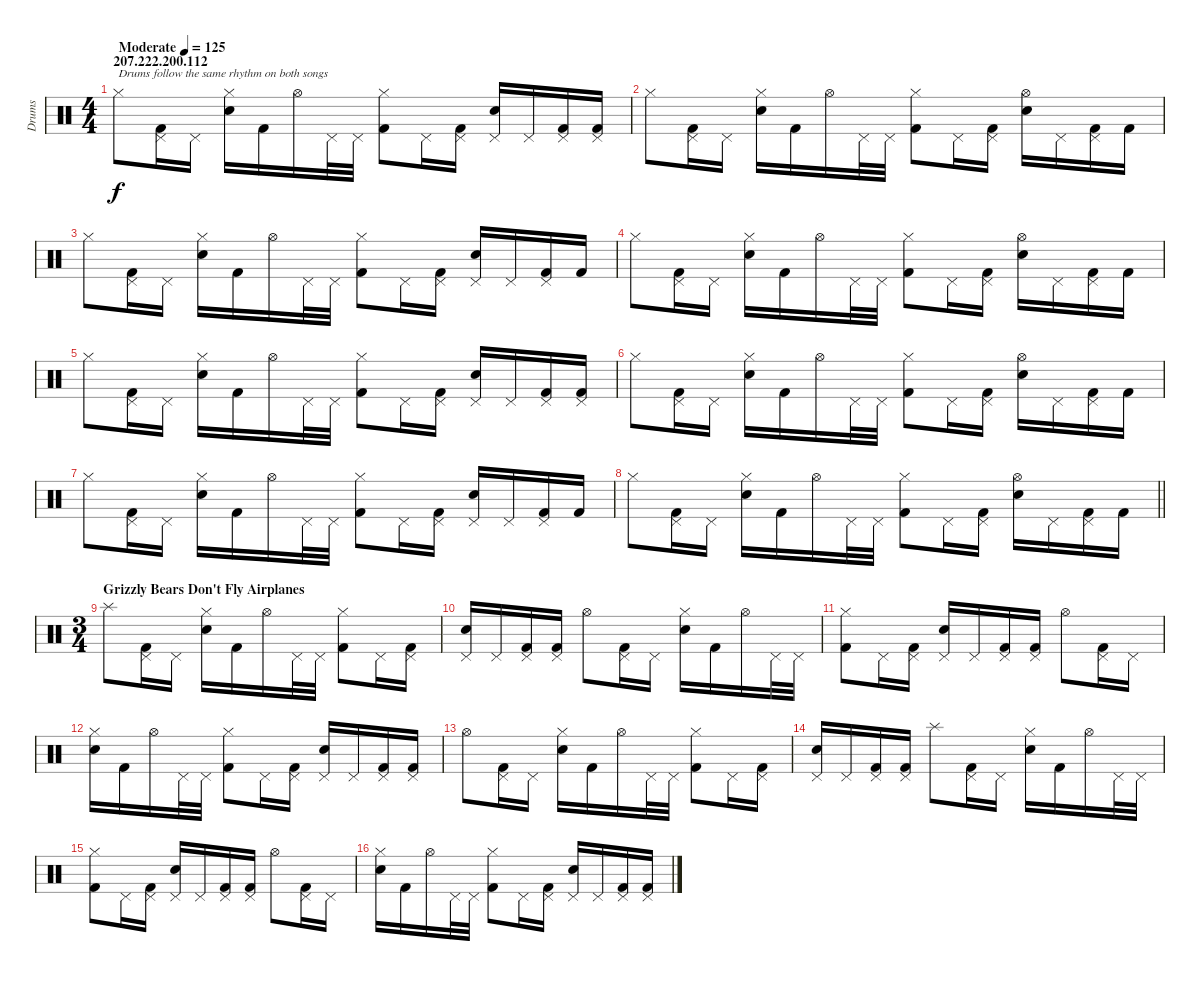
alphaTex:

\track ("Drums" "Drums") {instrument percussion}
\staff {score}
\articulation defaults
\ts (4 4)
\section ("" "207.222.200.112")
\tempo (125 "Moderate")
\clef neutral
\ks c "Hi-Hat (closed)".8{txt "Drums follow the same rhythm on both songs" dy f}
("Pedal Hi-Hat (hit)" "Kick (hit) 2").16 "Pedal Hi-Hat (hit)".16 ("Hi-Hat (closed)" "Snare (hit) 2").16 "Kick (hit) 2".16 "Hi-Hat (open)".16 "Pedal Hi-Hat (hit)".32 "Pedal Hi-Hat (hit)".32 ("Hi-Hat (closed)" "Kick (hit) 2").8 "Pedal Hi-Hat (hit)".16 ("Pedal Hi-Hat (hit)" "Kick (hit) 2").16 ("Pedal Hi-Hat (hit)" "Snare (hit) 2").16 "Pedal Hi-Hat (hit)".16 ("Pedal Hi-Hat (hit)" "Kick (hit) 2").16 ("Pedal Hi-Hat (hit)" "Kick (hit) 2").16 |
"Hi-Hat (closed)".8 ("Pedal Hi-Hat (hit)" "Kick (hit) 2").16 "Pedal Hi-Hat (hit)".16 ("Hi-Hat (closed)" "Snare (hit) 2").16 "Kick (hit) 2".16 "Hi-Hat (open)".16 "Pedal Hi-Hat (hit)".32 "Pedal Hi-Hat (hit)".32 ("Hi-Hat (closed)" "Kick (hit) 2").8 "Pedal Hi-Hat (hit)".16 ("Pedal Hi-Hat (hit)" "Kick (hit) 2").16 ("Hi-Hat (open)" "Snare (hit) 2").16 "Pedal Hi-Hat (hit)".16 ("Pedal Hi-Hat (hit)" "Kick (hit) 2").16 "Kick (hit) 2".16 |
"Hi-Hat (closed)".8 ("Pedal Hi-Hat (hit)" "Kick (hit) 2").16 "Pedal Hi-Hat (hit)".16 ("Hi-Hat (closed)" "Snare (hit) 2").16 "Kick (hit) 2".16 "Hi-Hat (open)".16 "Pedal Hi-Hat (hit)".32 "Pedal Hi-Hat (hit)".32 ("Hi-Hat (closed)" "Kick (hit) 2").8 "Pedal Hi-Hat (hit)".16 ("Pedal Hi-Hat (hit)" "Kick (hit) 2").16 ("Pedal Hi-Hat (hit)" "Snare (hit) 2").16 "Pedal Hi-Hat (hit)".16 ("Pedal Hi-Hat (hit)" "Kick (hit) 2").16 "Kick (hit) 2".16 |
"Hi-Hat (closed)".8 ("Pedal Hi-Hat (hit)" "Kick (hit) 2").16 "Pedal Hi-Hat (hit)".16 ("Hi-Hat (closed)" "Snare (hit) 2").16 "Kick (hit) 2".16 "Hi-Hat (open)".16 "Pedal Hi-Hat (hit)".32 "Pedal Hi-Hat (hit)".32 ("Hi-Hat (closed)" "Kick (hit) 2").8 "Pedal Hi-Hat (hit)".16 ("Pedal Hi-Hat (hit)" "Kick (hit) 2").16 ("Hi-Hat (open)" "Snare (hit) 2").16 "Pedal Hi-Hat (hit)".16 ("Pedal Hi-Hat (hit)" "Kick (hit) 2").16 "Kick (hit) 2".16 |
"Hi-Hat (closed)".8 ("Pedal Hi-Hat (hit)" "Kick (hit) 2").16 "Pedal Hi-Hat (hit)".16 ("Hi-Hat (closed)" "Snare (hit) 2").16 "Kick (hit) 2".16 "Hi-Hat (open)".16 "Pedal Hi-Hat (hit)".32 "Pedal Hi-Hat (hit)".32 ("Hi-Hat (closed)" "Kick (hit) 2").8 "Pedal Hi-Hat (hit)".16 ("Pedal Hi-Hat (hit)" "Kick (hit) 2").16 ("Pedal Hi-Hat (hit)" "Snare (hit) 2").16 "Pedal Hi-Hat (hit)".16 ("Pedal Hi-Hat (hit)" "Kick (hit) 2").16 ("Pedal Hi-Hat (hit)" "Kick (hit) 2").16 |
"Hi-Hat (closed)".8 ("Pedal Hi-Hat (hit)" "Kick (hit) 2").16 "Pedal Hi-Hat (hit)".16 ("Hi-Hat (closed)" "Snare (hit) 2").16 "Kick (hit) 2".16 "Hi-Hat (open)".16 "Pedal Hi-Hat (hit)".32 "Pedal Hi-Hat (hit)".32 ("Hi-Hat (closed)" "Kick (hit) 2").8 "Pedal Hi-Hat (hit)".16 ("Pedal Hi-Hat (hit)" "Kick (hit) 2").16 ("Hi-Hat (open)" "Snare (hit) 2").16 "Pedal Hi-Hat (hit)".16 ("Pedal Hi-Hat (hit)" "Kick (hit) 2").16 "Kick (hit) 2".16 |
"Hi-Hat (closed)".8 ("Pedal Hi-Hat (hit)" "Kick (hit) 2").16 "Pedal Hi-Hat (hit)".16 ("Hi-Hat (closed)" "Snare (hit) 2").16 "Kick (hit) 2".16 "Hi-Hat (open)".16 "Pedal Hi-Hat (hit)".32 "Pedal Hi-Hat (hit)".32 ("Hi-Hat (closed)" "Kick (hit) 2").8 "Pedal Hi-Hat (hit)".16 ("Pedal Hi-Hat (hit)" "Kick (hit) 2").16 ("Pedal Hi-Hat (hit)" "Snare (hit) 2").16 "Pedal Hi-Hat (hit)".16 ("Pedal Hi-Hat (hit)" "Kick (hit) 2").16 "Kick (hit) 2".16 |
\barLineRight lightlight "Hi-Hat (closed)".8
("Pedal Hi-Hat (hit)" "Kick (hit) 2").16 "Pedal Hi-Hat (hit)".16 ("Hi-Hat (closed)" "Snare (hit) 2").16 "Kick (hit) 2".16 "Hi-Hat (open)".16 "Pedal Hi-Hat (hit)".32 "Pedal Hi-Hat (hit)".32 ("Hi-Hat (closed)" "Kick (hit) 2").8 "Pedal Hi-Hat (hit)".16 ("Pedal Hi-Hat (hit)" "Kick (hit) 2").16 ("Hi-Hat (open)" "Snare (hit) 2").16 "Pedal Hi-Hat (hit)".16 ("Pedal Hi-Hat (hit)" "Kick (hit) 2").16 "Kick (hit) 2".16 |
\ts (3 4)
\section ("" "Grizzly Bears Don't Fly Airplanes")
"Splash (hit)".8 ("Pedal Hi-Hat (hit)" "Kick (hit) 2").16 "Pedal Hi-Hat (hit)".16 ("Hi-Hat (closed)" "Snare (hit) 2").16 "Kick (hit) 2".16 "Hi-Hat (open)".16 "Pedal Hi-Hat (hit)".32 "Pedal Hi-Hat (hit)".32 ("Hi-Hat (closed)" "Kick (hit) 2").8 "Pedal Hi-Hat (hit)".16 ("Pedal Hi-Hat (hit)" "Kick (hit) 2").16 |
("Pedal Hi-Hat (hit)" "Snare (hit) 2").16 "Pedal Hi-Hat (hit)".16 ("Pedal Hi-Hat (hit)" "Kick (hit) 2").16 ("Pedal Hi-Hat (hit)" "Kick (hit) 2").16 "Hi-Hat (open)".8 ("Pedal Hi-Hat (hit)" "Kick (hit) 2").16 "Pedal Hi-Hat (hit)".16 ("Hi-Hat (closed)" "Snare (hit) 2").16 "Kick (hit) 2".16 "Hi-Hat (open)".16 "Pedal Hi-Hat (hit)".32 "Pedal Hi-Hat (hit)".32 |
("Hi-Hat (closed)" "Kick (hit) 2").8 "Pedal Hi-Hat (hit)".16 ("Pedal Hi-Hat (hit)" "Kick (hit) 2").16 ("Pedal Hi-Hat (hit)" "Snare (hit) 2").16 "Pedal Hi-Hat (hit)".16 ("Pedal Hi-Hat (hit)" "Kick (hit) 2").16 ("Pedal Hi-Hat (hit)" "Kick (hit) 2").16 "Hi-Hat (open)".8 ("Pedal Hi-Hat (hit)" "Kick (hit) 2").16 "Pedal Hi-Hat (hit)".16 |
("Hi-Hat (closed)" "Snare (hit) 2").16 "Kick (hit) 2".16 "Hi-Hat (open)".16 "Pedal Hi-Hat (hit)".32 "Pedal Hi-Hat (hit)".32 ("Hi-Hat (closed)" "Kick (hit) 2").8 "Pedal Hi-Hat (hit)".16 ("Pedal Hi-Hat (hit)" "Kick (hit) 2").16 ("Pedal Hi-Hat (hit)" "Snare (hit) 2").16 "Pedal Hi-Hat (hit)".16 ("Pedal Hi-Hat (hit)" "Kick (hit) 2").16 ("Pedal Hi-Hat (hit)" "Kick (hit) 2").16 |
"Hi-Hat (open)".8 ("Pedal Hi-Hat (hit)" "Kick (hit) 2").16 "Pedal Hi-Hat (hit)".16 ("Hi-Hat (closed)" "Snare (hit) 2").16 "Kick (hit) 2".16 "Hi-Hat (open)".16 "Pedal Hi-Hat (hit)".32 "Pedal Hi-Hat (hit)".32 ("Hi-Hat (closed)" "Kick (hit) 2").8 "Pedal Hi-Hat (hit)".16 ("Pedal Hi-Hat (hit)" "Kick (hit) 2").16 |
("Pedal Hi-Hat (hit)" "Snare (hit) 2").16 "Pedal Hi-Hat (hit)".16 ("Pedal Hi-Hat (hit)" "Kick (hit) 2").16 ("Pedal Hi-Hat (hit)" "Kick (hit) 2").16 "Splash (hit)".8 ("Pedal Hi-Hat (hit)" "Kick (hit) 2").16 "Pedal Hi-Hat (hit)".16 ("Hi-Hat (closed)" "Snare (hit) 2").16 "Kick (hit) 2".16 "Hi-Hat (open)".16 "Pedal Hi-Hat (hit)".32 "Pedal Hi-Hat (hit)".32 |
("Hi-Hat (closed)" "Kick (hit) 2").8 "Pedal Hi-Hat (hit)".16 ("Pedal Hi-Hat (hit)" "Kick (hit) 2").16 ("Pedal Hi-Hat (hit)" "Snare (hit) 2").16 "Pedal Hi-Hat (hit)".16 ("Pedal Hi-Hat (hit)" "Kick (hit) 2").16 ("Pedal Hi-Hat (hit)" "Kick (hit) 2").16 "Hi-Hat (open)".8 ("Pedal Hi-Hat (hit)" "Kick (hit) 2").16 "Pedal Hi-Hat (hit)".16 |
("Hi-Hat (closed)" "Snare (hit) 2").16 "Kick (hit) 2".16 "Hi-Hat (open)".16 "Pedal Hi-Hat (hit)".32 "Pedal Hi-Hat (hit)".32 ("Hi-Hat (closed)" "Kick (hit) 2").8 "Pedal Hi-Hat (hit)".16 ("Pedal Hi-Hat (hit)" "Kick (hit) 2").16 ("Pedal Hi-Hat (hit)" "Snare (hit) 2").16 "Pedal Hi-Hat (hit)".16 ("Pedal Hi-Hat (hit)" "Kick (hit) 2").16 ("Pedal Hi-Hat (hit)" "Kick (hit) 2").16
